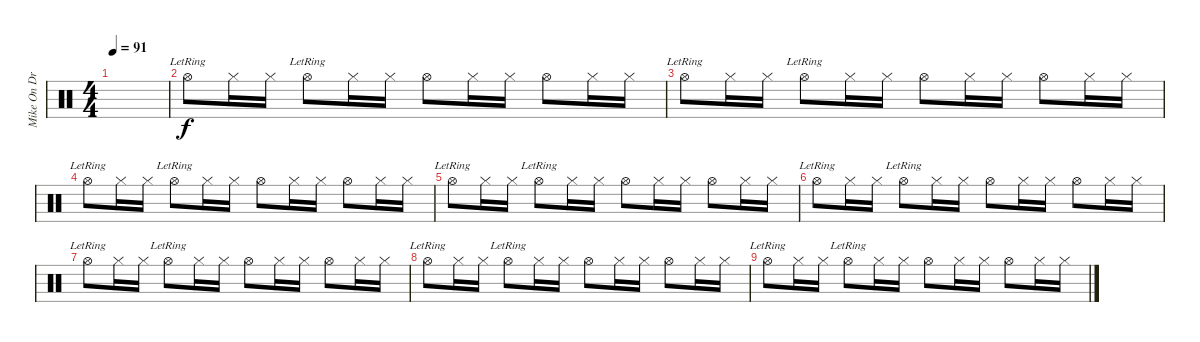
\track ("Mike On Drumms" "Mike On Dr") {instrument percussion}
\staff {score}
\articulation defaults
\ts (4 4)
\tempo 91
\clef neutral
\ks c
|
"Hi-Hat (open)"{lr}.8 "Hi-Hat (closed)".16 "Hi-Hat (closed)".16 "Hi-Hat (open)"{lr}.8 "Hi-Hat (closed)".16 "Hi-Hat (closed)".16 "Hi-Hat (open)".8 "Hi-Hat (closed)".16 "Hi-Hat (closed)".16 "Hi-Hat (open)".8 "Hi-Hat (closed)".16 "Hi-Hat (closed)".16 |
"Hi-Hat (open)"{lr}.8 "Hi-Hat (closed)".16 "Hi-Hat (closed)".16 "Hi-Hat (open)"{lr}.8 "Hi-Hat (closed)".16 "Hi-Hat (closed)".16 "Hi-Hat (open)".8 "Hi-Hat (closed)".16 "Hi-Hat (closed)".16 "Hi-Hat (open)".8 "Hi-Hat (closed)".16 "Hi-Hat (closed)".16 |
"Hi-Hat (open)"{lr}.8 "Hi-Hat (closed)".16 "Hi-Hat (closed)".16 "Hi-Hat (open)"{lr}.8 "Hi-Hat (closed)".16 "Hi-Hat (closed)".16 "Hi-Hat (open)".8 "Hi-Hat (closed)".16 "Hi-Hat (closed)".16 "Hi-Hat (open)".8 "Hi-Hat (closed)".16 "Hi-Hat (closed)".16 |
"Hi-Hat (open)"{lr}.8 "Hi-Hat (closed)".16 "Hi-Hat (closed)".16 "Hi-Hat (open)"{lr}.8 "Hi-Hat (closed)".16 "Hi-Hat (closed)".16 "Hi-Hat (open)".8 "Hi-Hat (closed)".16 "Hi-Hat (closed)".16 "Hi-Hat (open)".8 "Hi-Hat (closed)".16 "Hi-Hat (closed)".16 |
"Hi-Hat (open)"{lr}.8 "Hi-Hat (closed)".16 "Hi-Hat (closed)".16 "Hi-Hat (open)"{lr}.8 "Hi-Hat (closed)".16 "Hi-Hat (closed)".16 "Hi-Hat (open)".8 "Hi-Hat (closed)".16 "Hi-Hat (closed)".16 "Hi-Hat (open)".8 "Hi-Hat (closed)".16 "Hi-Hat (closed)".16 |
"Hi-Hat (open)"{lr}.8 "Hi-Hat (closed)".16 "Hi-Hat (closed)".16 "Hi-Hat (open)"{lr}.8 "Hi-Hat (closed)".16 "Hi-Hat (closed)".16 "Hi-Hat (open)".8 "Hi-Hat (closed)".16 "Hi-Hat (closed)".16 "Hi-Hat (open)".8 "Hi-Hat (closed)".16 "Hi-Hat (closed)".16 |
"Hi-Hat (open)"{lr}.8 "Hi-Hat (closed)".16 "Hi-Hat (closed)".16 "Hi-Hat (open)"{lr}.8 "Hi-Hat (closed)".16 "Hi-Hat (closed)".16 "Hi-Hat (open)".8 "Hi-Hat (closed)".16 "Hi-Hat (closed)".16 "Hi-Hat (open)".8 "Hi-Hat (closed)".16 "Hi-Hat (closed)".16 |
"Hi-Hat (open)"{lr}.8 "Hi-Hat (closed)".16 "Hi-Hat (closed)".16 "Hi-Hat (open)"{lr}.8 "Hi-Hat (closed)".16 "Hi-Hat (closed)".16 "Hi-Hat (open)".8 "Hi-Hat (closed)".16 "Hi-Hat (closed)".16 "Hi-Hat (open)".8 "Hi-Hat (closed)".16 "Hi-Hat (closed)".16
